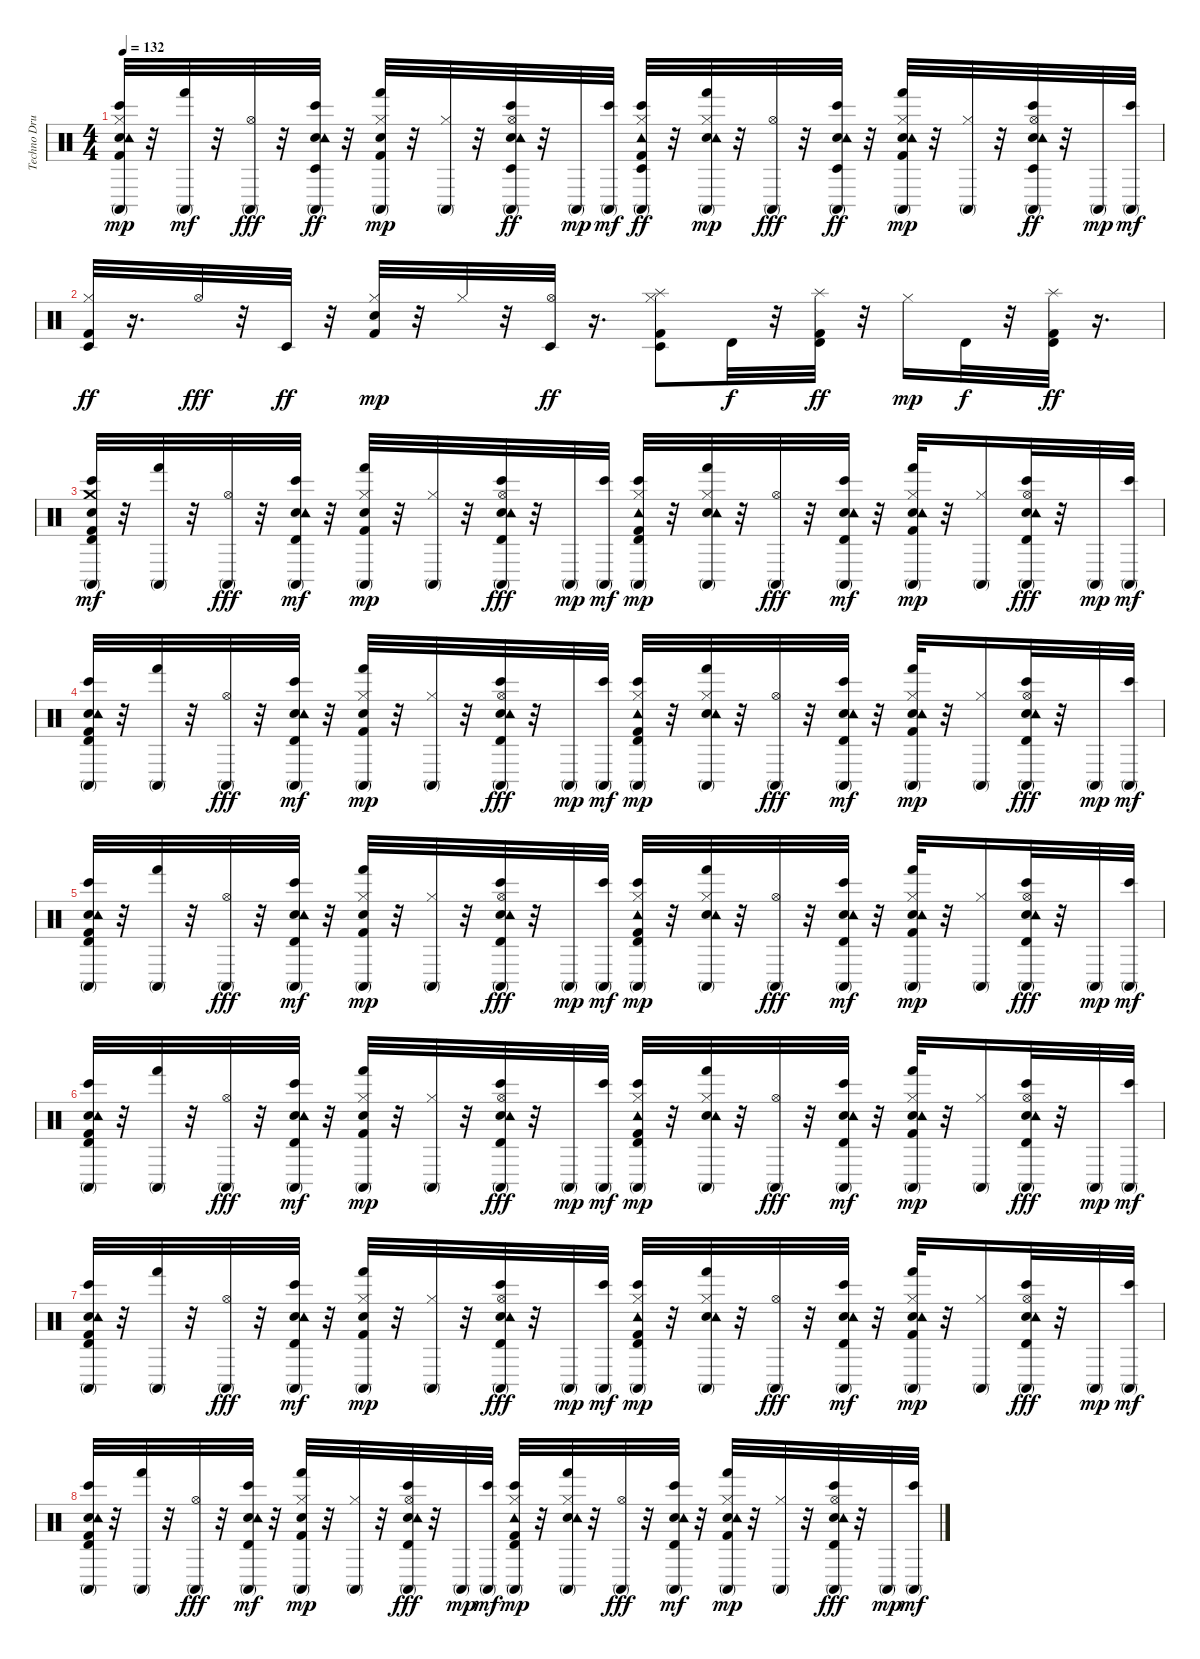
\track ("Techno Drums" "Techno Dru") {instrument percussion}
\staff {score}
\articulation defaults
\ts (4 4)
\tempo 132
\clef neutral
\ks c
("Kick (hit) 2" "Hand Clap (hit)" "Tambourine (hit)" "Conga high (mute)" "Bongo High (hit)" "Hi-Hat (closed)").32{dy mp} r.32 ("Conga high (mute)" "Hand (hit)").32{dy mf} r.32 ("Conga high (mute)" "Hi-Hat (open)").32{dy fff} r.32 ("Hand Clap (hit)" "Tambourine (hit)" "Conga high (mute)" "Bongo High (hit)" "Timbale low (hit)").32{dy ff} r.32 ("Kick (hit) 2" "Hand Clap (hit)" "Conga high (mute)" "Hand (hit)" "Hi-Hat (closed)").32{dy mp} r.32 ("Conga high (mute)" "Hi-Hat (closed)").32 r.32 ("Hand Clap (hit)" "Tambourine (hit)" "Conga high (mute)" "Bongo High (hit)" "Hi-Hat (open)" "Timbale low (hit)").32{dy ff} r.32 "Conga high (mute)".32{dy mp} ("Conga high (mute)" "Bongo High (hit)").32{dy mf} ("Kick (hit) 2" "Tambourine (hit)" "Conga high (mute)" "Bongo High (hit)" "Hi-Hat (closed)" "Timbale low (hit)").32{dy ff} r.32 ("Hand Clap (hit)" "Tambourine (hit)" "Conga high (mute)" "Hand (hit)" "Hi-Hat (closed)").32{dy mp} r.32 ("Conga high (mute)" "Hi-Hat (open)").32{dy fff} r.32 ("Hand Clap (hit)" "Tambourine (hit)" "Conga high (mute)" "Bongo High (hit)" "Timbale low (hit)").32{dy ff} r.32 ("Kick (hit) 2" "Hand Clap (hit)" "Tambourine (hit)" "Conga high (mute)" "Hand (hit)" "Hi-Hat (closed)").32{dy mp} r.32 ("Conga high (mute)" "Hi-Hat (closed)").32 r.32 ("Hand Clap (hit)" "Tambourine (hit)" "Conga high (mute)" "Bongo High (hit)" "Hi-Hat (open)" "Timbale low (hit)").32{dy ff} r.32 "Conga high (mute)".32{dy mp} ("Conga high (mute)" "Bongo High (hit)").32{dy mf} |
("Kick (hit) 2" "Hi-Hat (closed)" "Timbale low (hit)").32{dy ff} r.16{d} "Hi-Hat (open)".32{dy fff} r.32 "Timbale low (hit)".32{dy ff} r.32 ("Kick (hit) 2" "Hand Clap (hit)" "Hi-Hat (closed)").32{dy mp} r.32 "Hi-Hat (closed)".32 r.32 ("Hi-Hat (open)" "Timbale low (hit)").32{dy ff} r.16{d} ("Hi-Hat (closed)" "Timbale low (hit)" "Kick (hit) 2" "Splash (hit)").8 "Timbale high (hit)".32{dy f} r.32 ("Timbale high (hit)" "Kick (hit) 2" "Splash (hit)").32{dy ff} r.32 "Hi-Hat (closed)".16{dy mp} "Timbale high (hit)".32{dy f} r.32 ("Timbale high (hit)" "Kick (hit) 2" "Splash (hit)").32{dy ff} r.16{d} |
("Kick (hit) 2" "Hand Clap (hit)" "Crash medium (hit)" "Conga high (mute)" "Bongo High (hit)" "Timbale high (hit)").32{dy mf} r.32 ("Conga high (mute)" "Hand (hit)").32 r.32 ("Conga high (mute)" "Hi-Hat (open)").32{dy fff} r.32 ("Hand Clap (hit)" "Tambourine (hit)" "Conga high (mute)" "Bongo High (hit)" "Timbale high (hit)").32{dy mf} r.32 ("Kick (hit) 2" "Hand Clap (hit)" "Conga high (mute)" "Hand (hit)" "Hi-Hat (closed)").32{dy mp} r.32 ("Conga high (mute)" "Hi-Hat (closed)").32 r.32 ("Hand Clap (hit)" "Tambourine (hit)" "Conga high (mute)" "Bongo High (hit)" "Timbale high (hit)" "Hi-Hat (open)").32{dy fff} r.32 "Conga high (mute)".32{dy mp} ("Conga high (mute)" "Bongo High (hit)").32{dy mf} ("Kick (hit) 2" "Tambourine (hit)" "Conga high (mute)" "Bongo High (hit)" "Timbale high (hit)" "Hi-Hat (closed)").32{dy mp} r.32 ("Hand Clap (hit)" "Tambourine (hit)" "Conga high (mute)" "Hand (hit)" "Hi-Hat (closed)").32 r.32 ("Conga high (mute)" "Hi-Hat (open)").32{dy fff} r.32 ("Hand Clap (hit)" "Tambourine (hit)" "Conga high (mute)" "Bongo High (hit)" "Timbale high (hit)").32{dy mf} r.32 ("Kick (hit) 2" "Hand Clap (hit)" "Tambourine (hit)" "Conga high (mute)" "Hand (hit)" "Hi-Hat (closed)").32{dy mp} r.32 ("Conga high (mute)" "Hi-Hat (closed)").16 ("Hand Clap (hit)" "Tambourine (hit)" "Conga high (mute)" "Bongo High (hit)" "Timbale high (hit)" "Hi-Hat (open)").32{dy fff} r.32 "Conga high (mute)".32{dy mp} ("Conga high (mute)" "Bongo High (hit)").32{dy mf} |
("Kick (hit) 2" "Hand Clap (hit)" "Tambourine (hit)" "Conga high (mute)" "Bongo High (hit)" "Timbale high (hit)").32 r.32 ("Conga high (mute)" "Hand (hit)").32 r.32 ("Conga high (mute)" "Hi-Hat (open)").32{dy fff} r.32 ("Hand Clap (hit)" "Tambourine (hit)" "Conga high (mute)" "Bongo High (hit)" "Timbale high (hit)").32{dy mf} r.32 ("Kick (hit) 2" "Hand Clap (hit)" "Conga high (mute)" "Hand (hit)" "Hi-Hat (closed)").32{dy mp} r.32 ("Conga high (mute)" "Hi-Hat (closed)").32 r.32 ("Hand Clap (hit)" "Tambourine (hit)" "Conga high (mute)" "Bongo High (hit)" "Timbale high (hit)" "Hi-Hat (open)").32{dy fff} r.32 "Conga high (mute)".32{dy mp} ("Conga high (mute)" "Bongo High (hit)").32{dy mf} ("Kick (hit) 2" "Tambourine (hit)" "Conga high (mute)" "Bongo High (hit)" "Timbale high (hit)" "Hi-Hat (closed)").32{dy mp} r.32 ("Hand Clap (hit)" "Tambourine (hit)" "Conga high (mute)" "Hand (hit)" "Hi-Hat (closed)").32 r.32 ("Conga high (mute)" "Hi-Hat (open)").32{dy fff} r.32 ("Hand Clap (hit)" "Tambourine (hit)" "Conga high (mute)" "Bongo High (hit)" "Timbale high (hit)").32{dy mf} r.32 ("Kick (hit) 2" "Hand Clap (hit)" "Tambourine (hit)" "Conga high (mute)" "Hand (hit)" "Hi-Hat (closed)").32{dy mp} r.32 ("Conga high (mute)" "Hi-Hat (closed)").16 ("Hand Clap (hit)" "Tambourine (hit)" "Conga high (mute)" "Bongo High (hit)" "Timbale high (hit)" "Hi-Hat (open)").32{dy fff} r.32 "Conga high (mute)".32{dy mp} ("Conga high (mute)" "Bongo High (hit)").32{dy mf} |
("Kick (hit) 2" "Hand Clap (hit)" "Tambourine (hit)" "Conga high (mute)" "Bongo High (hit)" "Timbale high (hit)").32 r.32 ("Conga high (mute)" "Hand (hit)").32 r.32 ("Conga high (mute)" "Hi-Hat (open)").32{dy fff} r.32 ("Hand Clap (hit)" "Tambourine (hit)" "Conga high (mute)" "Bongo High (hit)" "Timbale high (hit)").32{dy mf} r.32 ("Kick (hit) 2" "Hand Clap (hit)" "Conga high (mute)" "Hand (hit)" "Hi-Hat (closed)").32{dy mp} r.32 ("Conga high (mute)" "Hi-Hat (closed)").32 r.32 ("Hand Clap (hit)" "Tambourine (hit)" "Conga high (mute)" "Bongo High (hit)" "Timbale high (hit)" "Hi-Hat (open)").32{dy fff} r.32 "Conga high (mute)".32{dy mp} ("Conga high (mute)" "Bongo High (hit)").32{dy mf} ("Kick (hit) 2" "Tambourine (hit)" "Conga high (mute)" "Bongo High (hit)" "Timbale high (hit)" "Hi-Hat (closed)").32{dy mp} r.32 ("Hand Clap (hit)" "Tambourine (hit)" "Conga high (mute)" "Hand (hit)" "Hi-Hat (closed)").32 r.32 ("Conga high (mute)" "Hi-Hat (open)").32{dy fff} r.32 ("Hand Clap (hit)" "Tambourine (hit)" "Conga high (mute)" "Bongo High (hit)" "Timbale high (hit)").32{dy mf} r.32 ("Kick (hit) 2" "Hand Clap (hit)" "Tambourine (hit)" "Conga high (mute)" "Hand (hit)" "Hi-Hat (closed)").32{dy mp} r.32 ("Conga high (mute)" "Hi-Hat (closed)").16 ("Hand Clap (hit)" "Tambourine (hit)" "Conga high (mute)" "Bongo High (hit)" "Timbale high (hit)" "Hi-Hat (open)").32{dy fff} r.32 "Conga high (mute)".32{dy mp} ("Conga high (mute)" "Bongo High (hit)").32{dy mf} |
("Kick (hit) 2" "Hand Clap (hit)" "Tambourine (hit)" "Conga high (mute)" "Bongo High (hit)" "Timbale high (hit)").32 r.32 ("Conga high (mute)" "Hand (hit)").32 r.32 ("Conga high (mute)" "Hi-Hat (open)").32{dy fff} r.32 ("Hand Clap (hit)" "Tambourine (hit)" "Conga high (mute)" "Bongo High (hit)" "Timbale high (hit)").32{dy mf} r.32 ("Kick (hit) 2" "Hand Clap (hit)" "Conga high (mute)" "Hand (hit)" "Hi-Hat (closed)").32{dy mp} r.32 ("Conga high (mute)" "Hi-Hat (closed)").32 r.32 ("Hand Clap (hit)" "Tambourine (hit)" "Conga high (mute)" "Bongo High (hit)" "Timbale high (hit)" "Hi-Hat (open)").32{dy fff} r.32 "Conga high (mute)".32{dy mp} ("Conga high (mute)" "Bongo High (hit)").32{dy mf} ("Kick (hit) 2" "Tambourine (hit)" "Conga high (mute)" "Bongo High (hit)" "Timbale high (hit)" "Hi-Hat (closed)").32{dy mp} r.32 ("Hand Clap (hit)" "Tambourine (hit)" "Conga high (mute)" "Hand (hit)" "Hi-Hat (closed)").32 r.32 ("Conga high (mute)" "Hi-Hat (open)").32{dy fff} r.32 ("Hand Clap (hit)" "Tambourine (hit)" "Conga high (mute)" "Bongo High (hit)" "Timbale high (hit)").32{dy mf} r.32 ("Kick (hit) 2" "Hand Clap (hit)" "Tambourine (hit)" "Conga high (mute)" "Hand (hit)" "Hi-Hat (closed)").32{dy mp} r.32 ("Conga high (mute)" "Hi-Hat (closed)").16 ("Hand Clap (hit)" "Tambourine (hit)" "Conga high (mute)" "Bongo High (hit)" "Timbale high (hit)" "Hi-Hat (open)").32{dy fff} r.32 "Conga high (mute)".32{dy mp} ("Conga high (mute)" "Bongo High (hit)").32{dy mf} |
("Kick (hit) 2" "Hand Clap (hit)" "Tambourine (hit)" "Conga high (mute)" "Bongo High (hit)" "Timbale high (hit)").32 r.32 ("Conga high (mute)" "Hand (hit)").32 r.32 ("Conga high (mute)" "Hi-Hat (open)").32{dy fff} r.32 ("Hand Clap (hit)" "Tambourine (hit)" "Conga high (mute)" "Bongo High (hit)" "Timbale high (hit)").32{dy mf} r.32 ("Kick (hit) 2" "Hand Clap (hit)" "Conga high (mute)" "Hand (hit)" "Hi-Hat (closed)").32{dy mp} r.32 ("Conga high (mute)" "Hi-Hat (closed)").32 r.32 ("Hand Clap (hit)" "Tambourine (hit)" "Conga high (mute)" "Bongo High (hit)" "Timbale high (hit)" "Hi-Hat (open)").32{dy fff} r.32 "Conga high (mute)".32{dy mp} ("Conga high (mute)" "Bongo High (hit)").32{dy mf} ("Kick (hit) 2" "Tambourine (hit)" "Conga high (mute)" "Bongo High (hit)" "Timbale high (hit)" "Hi-Hat (closed)").32{dy mp} r.32 ("Hand Clap (hit)" "Tambourine (hit)" "Conga high (mute)" "Hand (hit)" "Hi-Hat (closed)").32 r.32 ("Conga high (mute)" "Hi-Hat (open)").32{dy fff} r.32 ("Hand Clap (hit)" "Tambourine (hit)" "Conga high (mute)" "Bongo High (hit)" "Timbale high (hit)").32{dy mf} r.32 ("Kick (hit) 2" "Hand Clap (hit)" "Tambourine (hit)" "Conga high (mute)" "Hand (hit)" "Hi-Hat (closed)").32{dy mp} r.32 ("Conga high (mute)" "Hi-Hat (closed)").16 ("Hand Clap (hit)" "Tambourine (hit)" "Conga high (mute)" "Bongo High (hit)" "Timbale high (hit)" "Hi-Hat (open)").32{dy fff} r.32 "Conga high (mute)".32{dy mp} ("Conga high (mute)" "Bongo High (hit)").32{dy mf} |
("Kick (hit) 2" "Hand Clap (hit)" "Tambourine (hit)" "Conga high (mute)" "Bongo High (hit)" "Timbale high (hit)").32 r.32 ("Conga high (mute)" "Hand (hit)").32 r.32 ("Conga high (mute)" "Hi-Hat (open)").32{dy fff} r.32 ("Hand Clap (hit)" "Tambourine (hit)" "Conga high (mute)" "Bongo High (hit)" "Timbale high (hit)").32{dy mf} r.32 ("Kick (hit) 2" "Hand Clap (hit)" "Conga high (mute)" "Hand (hit)" "Hi-Hat (closed)").32{dy mp} r.32 ("Conga high (mute)" "Hi-Hat (closed)").32 r.32 ("Hand Clap (hit)" "Tambourine (hit)" "Conga high (mute)" "Bongo High (hit)" "Timbale high (hit)" "Hi-Hat (open)").32{dy fff} r.32 "Conga high (mute)".32{dy mp} ("Conga high (mute)" "Bongo High (hit)").32{dy mf} ("Kick (hit) 2" "Tambourine (hit)" "Conga high (mute)" "Bongo High (hit)" "Timbale high (hit)" "Hi-Hat (closed)").32{dy mp} r.32 ("Hand Clap (hit)" "Tambourine (hit)" "Conga high (mute)" "Hand (hit)" "Hi-Hat (closed)").32 r.32 ("Conga high (mute)" "Hi-Hat (open)").32{dy fff} r.32 ("Hand Clap (hit)" "Tambourine (hit)" "Conga high (mute)" "Bongo High (hit)" "Timbale high (hit)").32{dy mf} r.32 ("Kick (hit) 2" "Hand Clap (hit)" "Tambourine (hit)" "Conga high (mute)" "Hand (hit)" "Hi-Hat (closed)").32{dy mp} r.32 ("Conga high (mute)" "Hi-Hat (closed)").32 r.32 ("Hand Clap (hit)" "Tambourine (hit)" "Conga high (mute)" "Bongo High (hit)" "Timbale high (hit)" "Hi-Hat (open)").32{dy fff} r.32 "Conga high (mute)".32{dy mp} ("Conga high (mute)" "Bongo High (hit)").32{dy mf}
